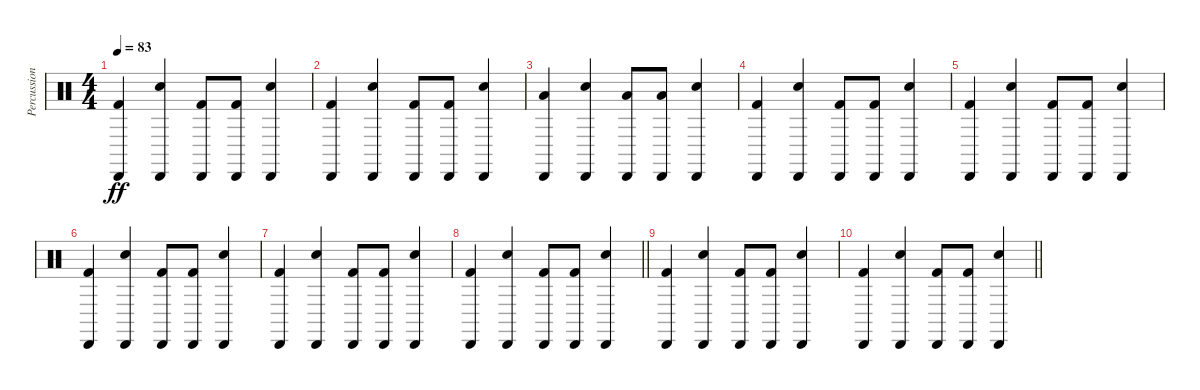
\track ("Percussion" "Percussion") {instrument percussion}
\staff {score}
\articulation defaults
\ts (4 4)
\tempo 83
\clef neutral
\ks c
("Cabasa (hit)" "Kick (hit) 2").4{dy ff} ("Cabasa (hit)" "Electric Snare (hit)").4 ("Cabasa (hit)" "Kick (hit) 2").8 ("Cabasa (hit)" "Kick (hit) 2").8 ("Cabasa (hit)" "Electric Snare (hit)").4 |
("Cabasa (hit)" "Kick (hit) 2").4 ("Cabasa (hit)" "Electric Snare (hit)").4 ("Cabasa (hit)" "Kick (hit) 2").8 ("Cabasa (hit)" "Kick (hit) 2").8 ("Cabasa (hit)" "Electric Snare (hit)").4 |
("Cabasa (hit)" "Low Floor Tom (hit)").4 ("Cabasa (hit)" "Electric Snare (hit)").4 ("Cabasa (hit)" "Low Floor Tom (hit)").8 ("Cabasa (hit)" "Low Floor Tom (hit)").8 ("Cabasa (hit)" "Electric Snare (hit)").4 |
("Cabasa (hit)" "Kick (hit) 2").4 ("Cabasa (hit)" "Electric Snare (hit)").4 ("Cabasa (hit)" "Kick (hit) 2").8 ("Cabasa (hit)" "Kick (hit) 2").8 ("Cabasa (hit)" "Electric Snare (hit)").4 |
("Cabasa (hit)" "Kick (hit) 2").4 ("Cabasa (hit)" "Electric Snare (hit)").4 ("Cabasa (hit)" "Kick (hit) 2").8 ("Cabasa (hit)" "Kick (hit) 2").8 ("Cabasa (hit)" "Electric Snare (hit)").4 |
("Cabasa (hit)" "Kick (hit) 2").4 ("Cabasa (hit)" "Electric Snare (hit)").4 ("Cabasa (hit)" "Kick (hit) 2").8 ("Cabasa (hit)" "Kick (hit) 2").8 ("Cabasa (hit)" "Electric Snare (hit)").4 |
("Cabasa (hit)" "Kick (hit) 2").4 ("Cabasa (hit)" "Electric Snare (hit)").4 ("Cabasa (hit)" "Kick (hit) 2").8 ("Cabasa (hit)" "Kick (hit) 2").8 ("Cabasa (hit)" "Electric Snare (hit)").4 |
\barLineRight lightlight
("Cabasa (hit)" "Kick (hit) 2").4 ("Cabasa (hit)" "Electric Snare (hit)").4 ("Cabasa (hit)" "Kick (hit) 2").8 ("Cabasa (hit)" "Kick (hit) 2").8 ("Cabasa (hit)" "Electric Snare (hit)").4 |
("Cabasa (hit)" "Kick (hit) 2").4 ("Cabasa (hit)" "Electric Snare (hit)").4 ("Cabasa (hit)" "Kick (hit) 2").8 ("Cabasa (hit)" "Kick (hit) 2").8 ("Cabasa (hit)" "Electric Snare (hit)").4 |
\barLineRight lightlight
("Cabasa (hit)" "Kick (hit) 2").4 ("Cabasa (hit)" "Electric Snare (hit)").4 ("Cabasa (hit)" "Kick (hit) 2").8 ("Cabasa (hit)" "Kick (hit) 2").8 ("Cabasa (hit)" "Electric Snare (hit)").4
